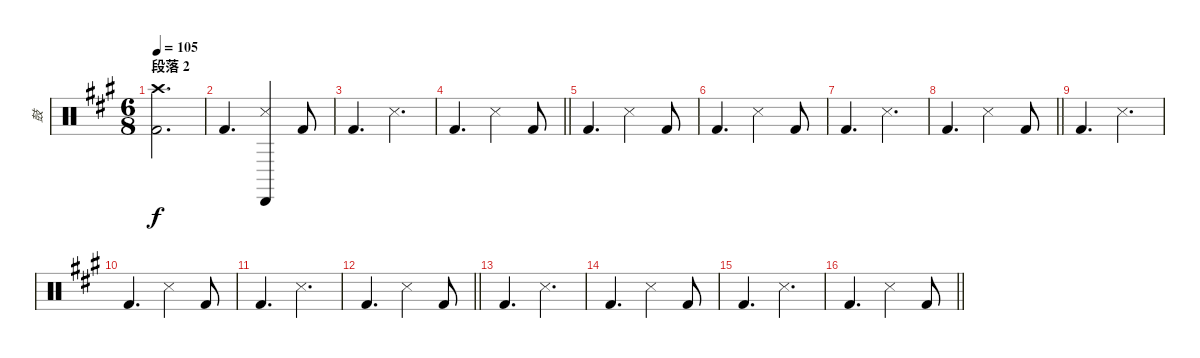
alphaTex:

\track ("鼓" "鼓") {instrument percussion}
\staff {score}
\articulation defaults
\ts (6 8)
\section ("" "段落 2")
\tempo 105
\clef neutral
\ks a
("Crash high (hit)" "Kick (hit) 2").2{d dy f} |
"Kick (hit) 2".4{d} ("Cabasa (hit)" "Snare (side stick) 3").4 "Kick (hit) 2".8 |
"Kick (hit) 2".4{d} "Snare (side stick) 3".4{d} |
\barLineRight lightlight "Kick (hit) 2".4{d} "Snare (side stick) 3".4 "Kick (hit) 2".8
|
"Kick (hit) 2".4{d} "Snare (side stick) 3".4 "Kick (hit) 2".8 |
"Kick (hit) 2".4{d} "Snare (side stick) 3".4 "Kick (hit) 2".8 |
"Kick (hit) 2".4{d} "Snare (side stick) 3".4{d} |
\barLineRight lightlight "Kick (hit) 2".4{d} "Snare (side stick) 3".4 "Kick (hit) 2".8
|
"Kick (hit) 2".4{d} "Snare (side stick) 3".4{d} |
"Kick (hit) 2".4{d} "Snare (side stick) 3".4 "Kick (hit) 2".8 |
"Kick (hit) 2".4{d} "Snare (side stick) 3".4{d} |
\barLineRight lightlight "Kick (hit) 2".4{d} "Snare (side stick) 3".4 "Kick (hit) 2".8
|
"Kick (hit) 2".4{d} "Snare (side stick) 3".4{d} |
"Kick (hit) 2".4{d} "Snare (side stick) 3".4 "Kick (hit) 2".8 |
"Kick (hit) 2".4{d} "Snare (side stick) 3".4{d} |
\barLineRight lightlight "Kick (hit) 2".4{d} "Snare (side stick) 3".4 "Kick (hit) 2".8
